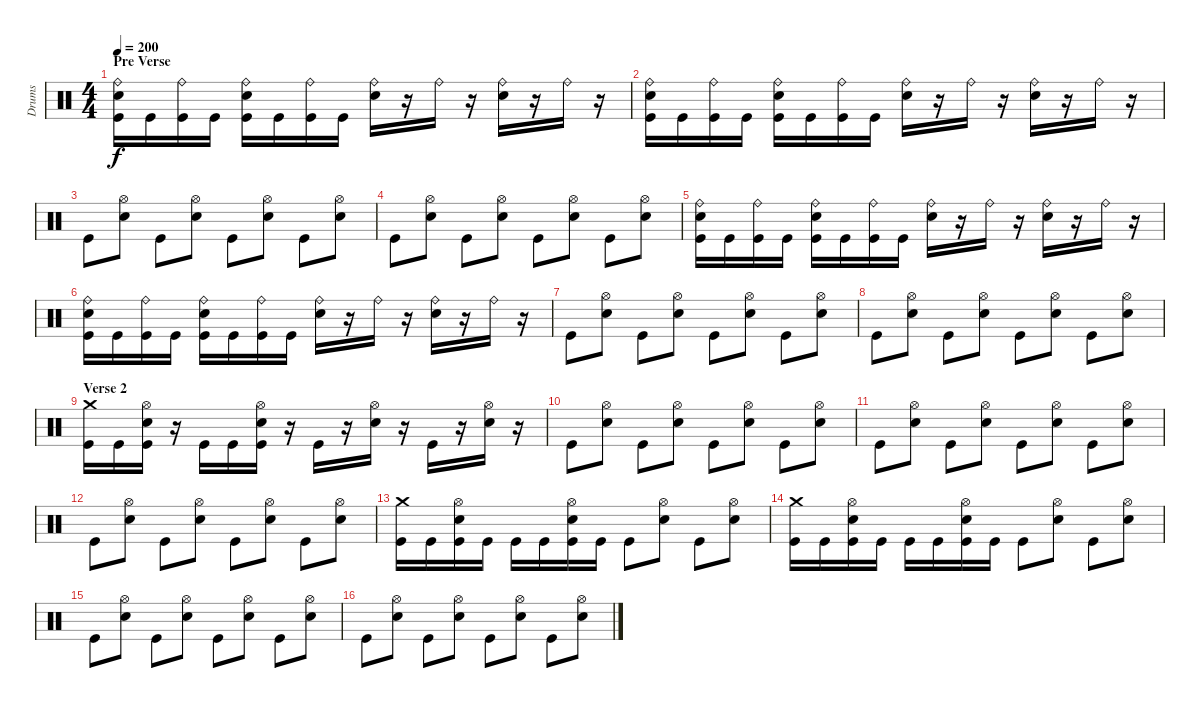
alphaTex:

\track ("Drums" "Drums") {instrument percussion}
\staff {score}
\articulation defaults
\ts (4 4)
\section ("" "Pre Verse")
\tempo 200
\clef neutral
\ks c
("Ride (bell)" "Electric Snare (hit)" "Kick (hit)").16{dy f} "Kick (hit)".16 ("Ride (bell)" "Kick (hit)").16 "Kick (hit)".16 ("Ride (bell)" "Electric Snare (hit)" "Kick (hit)").16 "Kick (hit)".16 ("Ride (bell)" "Kick (hit)").16 "Kick (hit)".16 ("Ride (bell)" "Electric Snare (hit)").16 r.16 "Ride (bell)".16 r.16 ("Ride (bell)" "Electric Snare (hit)").16 r.16 "Ride (bell)".16 r.16 |
("Ride (bell)" "Electric Snare (hit)" "Kick (hit)").16 "Kick (hit)".16 ("Ride (bell)" "Kick (hit)").16 "Kick (hit)".16 ("Ride (bell)" "Electric Snare (hit)" "Kick (hit)").16 "Kick (hit)".16 ("Ride (bell)" "Kick (hit)").16 "Kick (hit)".16 ("Ride (bell)" "Electric Snare (hit)").16 r.16 "Ride (bell)".16 r.16 ("Ride (bell)" "Electric Snare (hit)").16 r.16 "Ride (bell)".16 r.16 |
"Kick (hit)".8 ("Hi-Hat (open)" "Electric Snare (hit)").8 "Kick (hit)".8 ("Hi-Hat (open)" "Electric Snare (hit)").8 "Kick (hit)".8 ("Hi-Hat (open)" "Electric Snare (hit)").8 "Kick (hit)".8 ("Hi-Hat (open)" "Electric Snare (hit)").8 |
"Kick (hit)".8 ("Hi-Hat (open)" "Electric Snare (hit)").8 "Kick (hit)".8 ("Hi-Hat (open)" "Electric Snare (hit)").8 "Kick (hit)".8 ("Hi-Hat (open)" "Electric Snare (hit)").8 "Kick (hit)".8 ("Hi-Hat (open)" "Electric Snare (hit)").8 |
("Ride (bell)" "Electric Snare (hit)" "Kick (hit)").16 "Kick (hit)".16 ("Ride (bell)" "Kick (hit)").16 "Kick (hit)".16 ("Ride (bell)" "Electric Snare (hit)" "Kick (hit)").16 "Kick (hit)".16 ("Ride (bell)" "Kick (hit)").16 "Kick (hit)".16 ("Ride (bell)" "Electric Snare (hit)").16 r.16 "Ride (bell)".16 r.16 ("Ride (bell)" "Electric Snare (hit)").16 r.16 "Ride (bell)".16 r.16 |
("Ride (bell)" "Electric Snare (hit)" "Kick (hit)").16 "Kick (hit)".16 ("Ride (bell)" "Kick (hit)").16 "Kick (hit)".16 ("Ride (bell)" "Electric Snare (hit)" "Kick (hit)").16 "Kick (hit)".16 ("Ride (bell)" "Kick (hit)").16 "Kick (hit)".16 ("Ride (bell)" "Electric Snare (hit)").16 r.16 "Ride (bell)".16 r.16 ("Ride (bell)" "Electric Snare (hit)").16 r.16 "Ride (bell)".16 r.16 |
"Kick (hit)".8 ("Hi-Hat (open)" "Electric Snare (hit)").8 "Kick (hit)".8 ("Hi-Hat (open)" "Electric Snare (hit)").8 "Kick (hit)".8 ("Hi-Hat (open)" "Electric Snare (hit)").8 "Kick (hit)".8 ("Hi-Hat (open)" "Electric Snare (hit)").8 |
"Kick (hit)".8 ("Hi-Hat (open)" "Electric Snare (hit)").8 "Kick (hit)".8 ("Hi-Hat (open)" "Electric Snare (hit)").8 "Kick (hit)".8 ("Hi-Hat (open)" "Electric Snare (hit)").8 "Kick (hit)".8 ("Hi-Hat (open)" "Electric Snare (hit)").8 |
\section ("" "Verse 2")
("Crash medium (hit)" "Kick (hit)").16 "Kick (hit)".16 ("Hi-Hat (open)" "Electric Snare (hit)" "Kick (hit)").16 r.16 "Kick (hit)".16 "Kick (hit)".16 ("Hi-Hat (open)" "Electric Snare (hit)" "Kick (hit)").16 r.16 "Kick (hit)".16 r.16 ("Hi-Hat (open)" "Electric Snare (hit)").16 r.16 "Kick (hit)".16 r.16 ("Hi-Hat (open)" "Electric Snare (hit)").16 r.16 |
"Kick (hit)".8 ("Hi-Hat (open)" "Electric Snare (hit)").8 "Kick (hit)".8 ("Hi-Hat (open)" "Electric Snare (hit)").8 "Kick (hit)".8 ("Hi-Hat (open)" "Electric Snare (hit)").8 "Kick (hit)".8 ("Hi-Hat (open)" "Electric Snare (hit)").8 |
"Kick (hit)".8 ("Hi-Hat (open)" "Electric Snare (hit)").8 "Kick (hit)".8 ("Hi-Hat (open)" "Electric Snare (hit)").8 "Kick (hit)".8 ("Hi-Hat (open)" "Electric Snare (hit)").8 "Kick (hit)".8 ("Hi-Hat (open)" "Electric Snare (hit)").8 |
"Kick (hit)".8 ("Hi-Hat (open)" "Electric Snare (hit)").8 "Kick (hit)".8 ("Hi-Hat (open)" "Electric Snare (hit)").8 "Kick (hit)".8 ("Hi-Hat (open)" "Electric Snare (hit)").8 "Kick (hit)".8 ("Hi-Hat (open)" "Electric Snare (hit)").8 |
("Crash medium (hit)" "Kick (hit)").16 "Kick (hit)".16 ("Hi-Hat (open)" "Electric Snare (hit)" "Kick (hit)").16 "Kick (hit)".16 "Kick (hit)".16 "Kick (hit)".16 ("Hi-Hat (open)" "Electric Snare (hit)" "Kick (hit)").16 "Kick (hit)".16 "Kick (hit)".8 ("Hi-Hat (open)" "Electric Snare (hit)").8 "Kick (hit)".8 ("Hi-Hat (open)" "Electric Snare (hit)").8 |
("Crash medium (hit)" "Kick (hit)").16 "Kick (hit)".16 ("Hi-Hat (open)" "Electric Snare (hit)" "Kick (hit)").16 "Kick (hit)".16 "Kick (hit)".16 "Kick (hit)".16 ("Hi-Hat (open)" "Electric Snare (hit)" "Kick (hit)").16 "Kick (hit)".16 "Kick (hit)".8 ("Hi-Hat (open)" "Electric Snare (hit)").8 "Kick (hit)".8 ("Hi-Hat (open)" "Electric Snare (hit)").8 |
"Kick (hit)".8 ("Hi-Hat (open)" "Electric Snare (hit)").8 "Kick (hit)".8 ("Hi-Hat (open)" "Electric Snare (hit)").8 "Kick (hit)".8 ("Hi-Hat (open)" "Electric Snare (hit)").8 "Kick (hit)".8 ("Hi-Hat (open)" "Electric Snare (hit)").8 |
"Kick (hit)".8 ("Hi-Hat (open)" "Electric Snare (hit)").8 "Kick (hit)".8 ("Hi-Hat (open)" "Electric Snare (hit)").8 "Kick (hit)".8 ("Hi-Hat (open)" "Electric Snare (hit)").8 "Kick (hit)".8 ("Hi-Hat (open)" "Electric Snare (hit)").8
